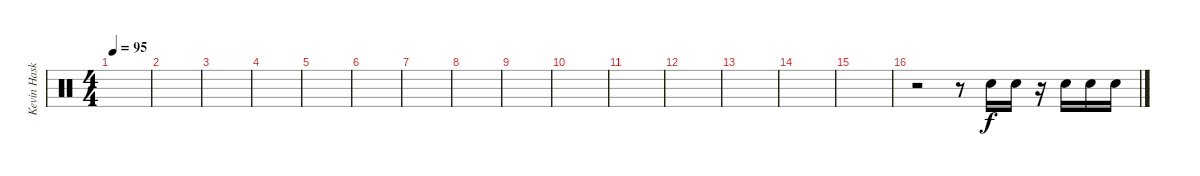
\track ("Kevin Haskins" "Kevin Hask") {instrument percussion}
\staff {score}
\articulation defaults
\ts (4 4)
\tempo 95
\clef neutral
\ks c
|
|
|
|
|
|
|
|
|
|
|
|
|
|
|
r.2 r.8 "Electric Snare (hit)".16 "Electric Snare (hit)".16 r.16 "Electric Snare (hit)".16 "Electric Snare (hit)".16 "Electric Snare (hit)".16
